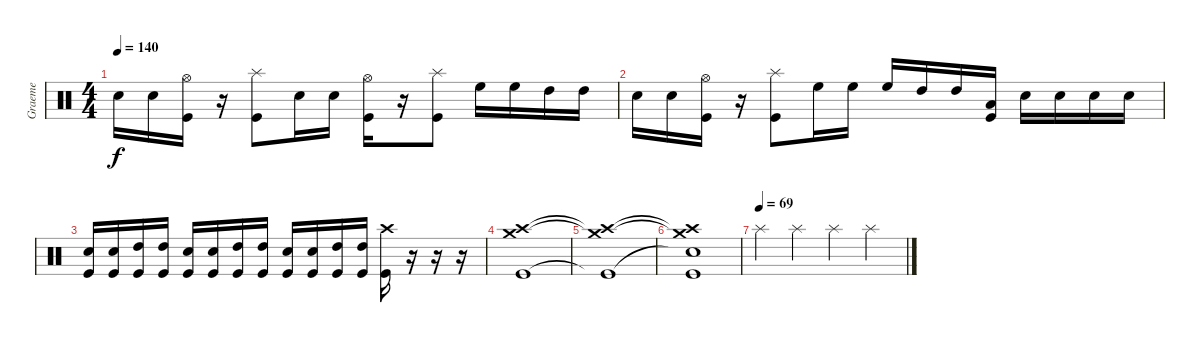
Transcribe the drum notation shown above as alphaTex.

\track ("Graeme" "Graeme") {instrument percussion}
\staff {score}
\articulation defaults
\ts (4 4)
\tempo 140
\clef neutral
\ks c "Snare (hit) 2".16{dy f} "Snare (hit) 2".16
("Hi-Hat (open)" "Kick (hit)").16 r.16 ("Splash (hit)" "Kick (hit)").8 "Snare (hit) 2".16 "Snare (hit) 2".16 ("Hi-Hat (open)" "Kick (hit)").16 r.16 ("Splash (hit)" "Kick (hit)").8 "High Floor Tom (hit)".16 "High Floor Tom (hit)".16 "High Tom (hit)".16 "High Tom (hit)".16 |
"Snare (hit) 2".16 "Snare (hit) 2".16 ("Hi-Hat (open)" "Kick (hit)").16 r.16 ("Splash (hit)" "Kick (hit)").8 "High Floor Tom (hit)".16 "High Floor Tom (hit)".16 "High Floor Tom (hit)".16 "High Tom (hit)".16 "High Tom (hit)".16 ("Low Floor Tom (hit)" "Kick (hit)").16 "Snare (hit) 2".16 "Snare (hit) 2".16 "Snare (hit) 2".16 "Snare (hit) 2".16 |
("Snare (hit) 2" "Kick (hit)").16 ("Snare (hit) 2" "Kick (hit)").16 ("High Tom (hit)" "Kick (hit)").16 ("High Tom (hit)" "Kick (hit)").16 ("Snare (hit) 2" "Kick (hit)").16 ("Snare (hit) 2" "Kick (hit)").16 ("High Tom (hit)" "Kick (hit)").16 ("High Tom (hit)" "Kick (hit)").16 ("Snare (hit) 2" "Kick (hit)").16 ("Snare (hit) 2" "Kick (hit)").16 ("High Tom (hit)" "Kick (hit)").16 ("High Tom (hit)" "Kick (hit)").16 ("Crash high (hit)" "Kick (hit)").16 r.16 r.16 r.16 |
("Crash medium (hit)" "Crash high (hit)" "Kick (hit)").1 |
("Crash medium (hit)"{t} "Crash high (hit)"{t} "Kick (hit)"{t}).1 |
("Crash medium (hit)"{t} "Crash high (hit)"{t} "Snare (hit)"{t} "Kick (hit)").1 |
\tempo (69)
"Splash (hit)".4{volume 5} "Splash (hit)".4{volume 13} "Splash (hit)".4 "Splash (hit)".4
